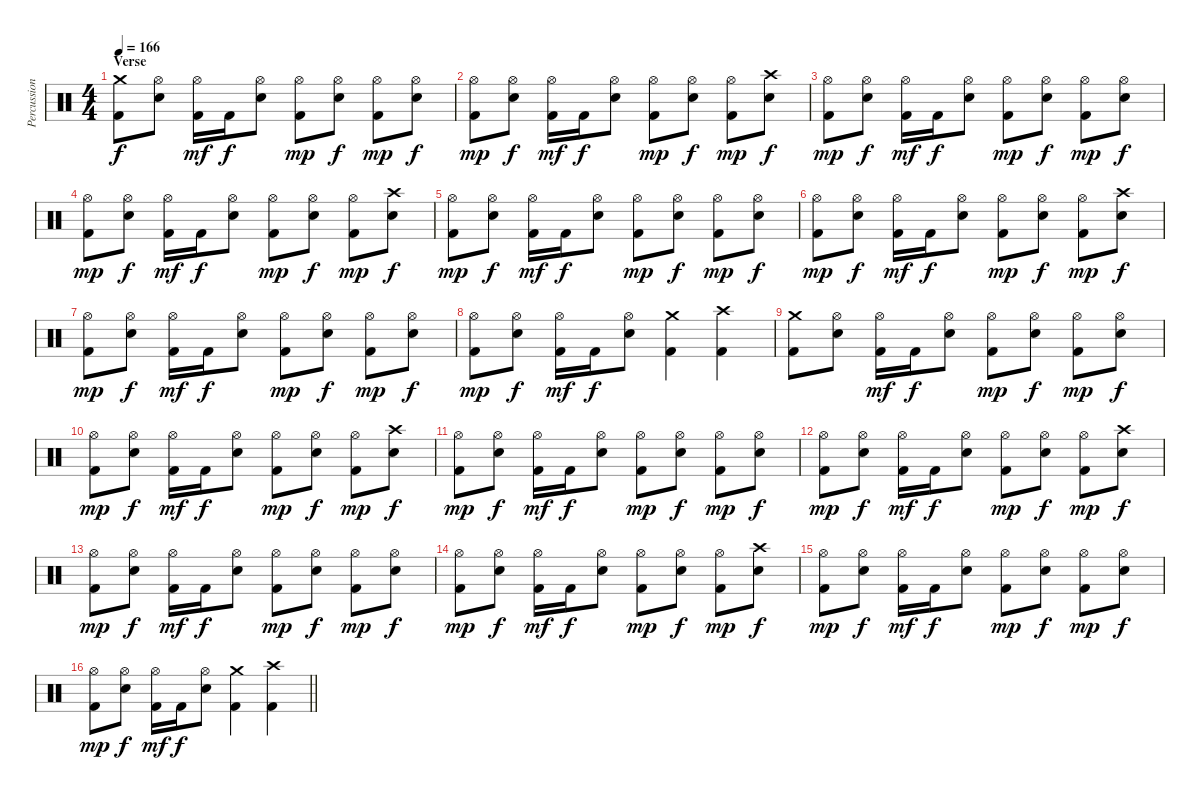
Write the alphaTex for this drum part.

\track ("Percussion" "Percussion") {instrument percussion}
\staff {score}
\articulation defaults
\ts (4 4)
\section ("" "Verse")
\tempo 166
\clef neutral
\ks c
("Crash medium (hit)" "Kick (hit) 2").8{dy f} ("Hi-Hat (open)" "Electric Snare (hit)").8 ("Hi-Hat (open)" "Kick (hit) 2").16{dy mf} "Kick (hit) 2".16{dy f} ("Hi-Hat (open)" "Electric Snare (hit)").8 ("Hi-Hat (open)" "Kick (hit) 2").8{dy mp} ("Hi-Hat (open)" "Electric Snare (hit)").8{dy f} ("Hi-Hat (open)" "Kick (hit) 2").8{dy mp} ("Hi-Hat (open)" "Electric Snare (hit)").8{dy f} |
("Hi-Hat (open)" "Kick (hit) 2").8{dy mp} ("Hi-Hat (open)" "Electric Snare (hit)").8{dy f} ("Hi-Hat (open)" "Kick (hit) 2").16{dy mf} "Kick (hit) 2".16{dy f} ("Hi-Hat (open)" "Electric Snare (hit)").8 ("Hi-Hat (open)" "Kick (hit) 2").8{dy mp} ("Hi-Hat (open)" "Electric Snare (hit)").8{dy f} ("Hi-Hat (open)" "Kick (hit) 2").8{dy mp} ("Crash high (hit)" "Electric Snare (hit)").8{dy f} |
("Hi-Hat (open)" "Kick (hit) 2").8{dy mp} ("Hi-Hat (open)" "Electric Snare (hit)").8{dy f} ("Hi-Hat (open)" "Kick (hit) 2").16{dy mf} "Kick (hit) 2".16{dy f} ("Hi-Hat (open)" "Electric Snare (hit)").8 ("Hi-Hat (open)" "Kick (hit) 2").8{dy mp} ("Hi-Hat (open)" "Electric Snare (hit)").8{dy f} ("Hi-Hat (open)" "Kick (hit) 2").8{dy mp} ("Hi-Hat (open)" "Electric Snare (hit)").8{dy f} |
("Hi-Hat (open)" "Kick (hit) 2").8{dy mp} ("Hi-Hat (open)" "Electric Snare (hit)").8{dy f} ("Hi-Hat (open)" "Kick (hit) 2").16{dy mf} "Kick (hit) 2".16{dy f} ("Hi-Hat (open)" "Electric Snare (hit)").8 ("Hi-Hat (open)" "Kick (hit) 2").8{dy mp} ("Hi-Hat (open)" "Electric Snare (hit)").8{dy f} ("Hi-Hat (open)" "Kick (hit) 2").8{dy mp} ("Crash high (hit)" "Electric Snare (hit)").8{dy f} |
("Hi-Hat (open)" "Kick (hit) 2").8{dy mp} ("Hi-Hat (open)" "Electric Snare (hit)").8{dy f} ("Hi-Hat (open)" "Kick (hit) 2").16{dy mf} "Kick (hit) 2".16{dy f} ("Hi-Hat (open)" "Electric Snare (hit)").8 ("Hi-Hat (open)" "Kick (hit) 2").8{dy mp} ("Hi-Hat (open)" "Electric Snare (hit)").8{dy f} ("Hi-Hat (open)" "Kick (hit) 2").8{dy mp} ("Hi-Hat (open)" "Electric Snare (hit)").8{dy f} |
("Hi-Hat (open)" "Kick (hit) 2").8{dy mp} ("Hi-Hat (open)" "Electric Snare (hit)").8{dy f} ("Hi-Hat (open)" "Kick (hit) 2").16{dy mf} "Kick (hit) 2".16{dy f} ("Hi-Hat (open)" "Electric Snare (hit)").8 ("Hi-Hat (open)" "Kick (hit) 2").8{dy mp} ("Hi-Hat (open)" "Electric Snare (hit)").8{dy f} ("Hi-Hat (open)" "Kick (hit) 2").8{dy mp} ("Crash high (hit)" "Electric Snare (hit)").8{dy f} |
("Hi-Hat (open)" "Kick (hit) 2").8{dy mp} ("Hi-Hat (open)" "Electric Snare (hit)").8{dy f} ("Hi-Hat (open)" "Kick (hit) 2").16{dy mf} "Kick (hit) 2".16{dy f} ("Hi-Hat (open)" "Electric Snare (hit)").8 ("Hi-Hat (open)" "Kick (hit) 2").8{dy mp} ("Hi-Hat (open)" "Electric Snare (hit)").8{dy f} ("Hi-Hat (open)" "Kick (hit) 2").8{dy mp} ("Hi-Hat (open)" "Electric Snare (hit)").8{dy f} |
("Hi-Hat (open)" "Kick (hit) 2").8{dy mp} ("Hi-Hat (open)" "Electric Snare (hit)").8{dy f} ("Hi-Hat (open)" "Kick (hit) 2").16{dy mf} "Kick (hit) 2".16{dy f} ("Hi-Hat (open)" "Electric Snare (hit)").8 ("Crash medium (hit)" "Kick (hit) 2").4 ("Crash high (hit)" "Kick (hit) 2").4 |
("Crash medium (hit)" "Kick (hit) 2").8 ("Hi-Hat (open)" "Electric Snare (hit)").8 ("Hi-Hat (open)" "Kick (hit) 2").16{dy mf} "Kick (hit) 2".16{dy f} ("Hi-Hat (open)" "Electric Snare (hit)").8 ("Hi-Hat (open)" "Kick (hit) 2").8{dy mp} ("Hi-Hat (open)" "Electric Snare (hit)").8{dy f} ("Hi-Hat (open)" "Kick (hit) 2").8{dy mp} ("Hi-Hat (open)" "Electric Snare (hit)").8{dy f} |
("Hi-Hat (open)" "Kick (hit) 2").8{dy mp} ("Hi-Hat (open)" "Electric Snare (hit)").8{dy f} ("Hi-Hat (open)" "Kick (hit) 2").16{dy mf} "Kick (hit) 2".16{dy f} ("Hi-Hat (open)" "Electric Snare (hit)").8 ("Hi-Hat (open)" "Kick (hit) 2").8{dy mp} ("Hi-Hat (open)" "Electric Snare (hit)").8{dy f} ("Hi-Hat (open)" "Kick (hit) 2").8{dy mp} ("Crash high (hit)" "Electric Snare (hit)").8{dy f} |
("Hi-Hat (open)" "Kick (hit) 2").8{dy mp} ("Hi-Hat (open)" "Electric Snare (hit)").8{dy f} ("Hi-Hat (open)" "Kick (hit) 2").16{dy mf} "Kick (hit) 2".16{dy f} ("Hi-Hat (open)" "Electric Snare (hit)").8 ("Hi-Hat (open)" "Kick (hit) 2").8{dy mp} ("Hi-Hat (open)" "Electric Snare (hit)").8{dy f} ("Hi-Hat (open)" "Kick (hit) 2").8{dy mp} ("Hi-Hat (open)" "Electric Snare (hit)").8{dy f} |
("Hi-Hat (open)" "Kick (hit) 2").8{dy mp} ("Hi-Hat (open)" "Electric Snare (hit)").8{dy f} ("Hi-Hat (open)" "Kick (hit) 2").16{dy mf} "Kick (hit) 2".16{dy f} ("Hi-Hat (open)" "Electric Snare (hit)").8 ("Hi-Hat (open)" "Kick (hit) 2").8{dy mp} ("Hi-Hat (open)" "Electric Snare (hit)").8{dy f} ("Hi-Hat (open)" "Kick (hit) 2").8{dy mp} ("Crash high (hit)" "Electric Snare (hit)").8{dy f} |
("Hi-Hat (open)" "Kick (hit) 2").8{dy mp} ("Hi-Hat (open)" "Electric Snare (hit)").8{dy f} ("Hi-Hat (open)" "Kick (hit) 2").16{dy mf} "Kick (hit) 2".16{dy f} ("Hi-Hat (open)" "Electric Snare (hit)").8 ("Hi-Hat (open)" "Kick (hit) 2").8{dy mp} ("Hi-Hat (open)" "Electric Snare (hit)").8{dy f} ("Hi-Hat (open)" "Kick (hit) 2").8{dy mp} ("Hi-Hat (open)" "Electric Snare (hit)").8{dy f} |
("Hi-Hat (open)" "Kick (hit) 2").8{dy mp} ("Hi-Hat (open)" "Electric Snare (hit)").8{dy f} ("Hi-Hat (open)" "Kick (hit) 2").16{dy mf} "Kick (hit) 2".16{dy f} ("Hi-Hat (open)" "Electric Snare (hit)").8 ("Hi-Hat (open)" "Kick (hit) 2").8{dy mp} ("Hi-Hat (open)" "Electric Snare (hit)").8{dy f} ("Hi-Hat (open)" "Kick (hit) 2").8{dy mp} ("Crash high (hit)" "Electric Snare (hit)").8{dy f} |
("Hi-Hat (open)" "Kick (hit) 2").8{dy mp} ("Hi-Hat (open)" "Electric Snare (hit)").8{dy f} ("Hi-Hat (open)" "Kick (hit) 2").16{dy mf} "Kick (hit) 2".16{dy f} ("Hi-Hat (open)" "Electric Snare (hit)").8 ("Hi-Hat (open)" "Kick (hit) 2").8{dy mp} ("Hi-Hat (open)" "Electric Snare (hit)").8{dy f} ("Hi-Hat (open)" "Kick (hit) 2").8{dy mp} ("Hi-Hat (open)" "Electric Snare (hit)").8{dy f} |
\barLineRight lightlight
("Hi-Hat (open)" "Kick (hit) 2").8{dy mp} ("Hi-Hat (open)" "Electric Snare (hit)").8{dy f} ("Hi-Hat (open)" "Kick (hit) 2").16{dy mf} "Kick (hit) 2".16{dy f} ("Hi-Hat (open)" "Electric Snare (hit)").8 ("Crash medium (hit)" "Kick (hit) 2").4 ("Crash high (hit)" "Kick (hit) 2").4
